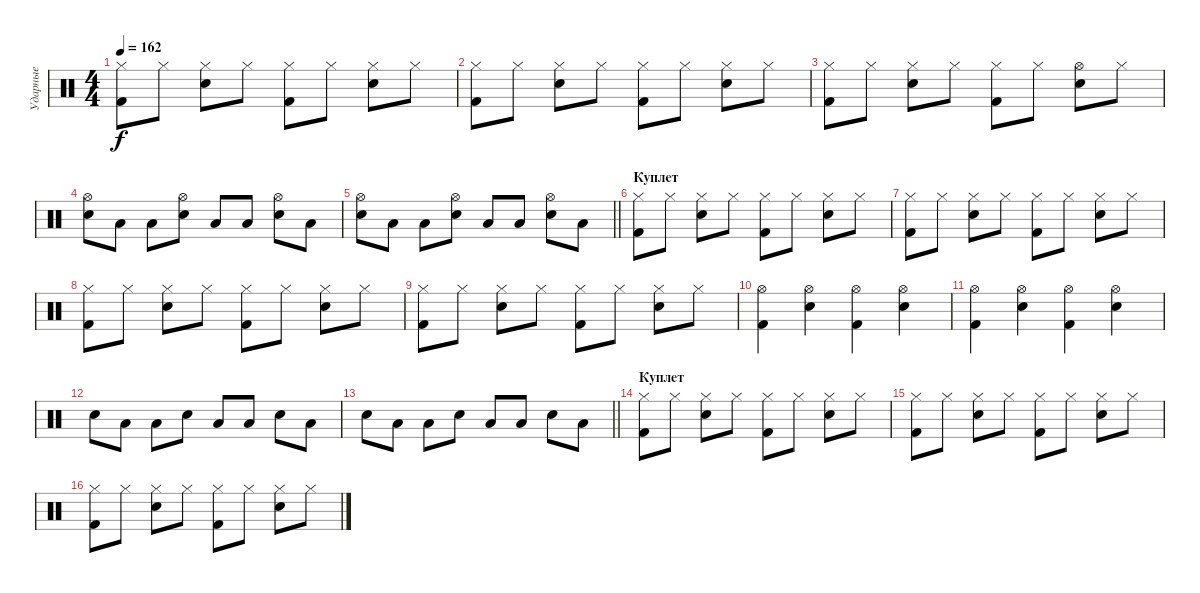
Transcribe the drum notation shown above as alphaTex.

\track ("Ударные" "Ударные") {instrument percussion}
\staff {score}
\articulation defaults
\ts (4 4)
\tempo 162
\clef neutral
\ks c
("Hi-Hat (closed)" "Kick (hit) 2").8{dy f} "Hi-Hat (closed)".8 ("Hi-Hat (closed)" "Snare (hit) 2").8 "Hi-Hat (closed)".8 ("Hi-Hat (closed)" "Kick (hit) 2").8 "Hi-Hat (closed)".8 ("Hi-Hat (closed)" "Snare (hit) 2").8 "Hi-Hat (closed)".8 |
("Hi-Hat (closed)" "Kick (hit) 2").8 "Hi-Hat (closed)".8 ("Hi-Hat (closed)" "Snare (hit) 2").8 "Hi-Hat (closed)".8 ("Hi-Hat (closed)" "Kick (hit) 2").8 "Hi-Hat (closed)".8 ("Hi-Hat (closed)" "Snare (hit) 2").8 "Hi-Hat (closed)".8 |
("Hi-Hat (closed)" "Kick (hit) 2").8 "Hi-Hat (closed)".8 ("Hi-Hat (closed)" "Snare (hit) 2").8 "Hi-Hat (closed)".8 ("Hi-Hat (closed)" "Kick (hit) 2").8 "Hi-Hat (closed)".8 ("Hi-Hat (open)" "Snare (hit) 2").8 "Hi-Hat (closed)".8 |
("Hi-Hat (open)" "Snare (hit) 2").8 "Low Floor Tom (hit)".8 "Low Floor Tom (hit)".8 ("Hi-Hat (open)" "Snare (hit) 2").8 "Low Floor Tom (hit)".8 "Low Floor Tom (hit)".8 ("Hi-Hat (open)" "Snare (hit) 2").8 "Low Floor Tom (hit)".8 |
\barLineRight lightlight
("Hi-Hat (open)" "Snare (hit) 2").8 "Low Floor Tom (hit)".8 "Low Floor Tom (hit)".8 ("Hi-Hat (open)" "Snare (hit) 2").8 "Low Floor Tom (hit)".8 "Low Floor Tom (hit)".8 ("Hi-Hat (open)" "Snare (hit) 2").8 "Low Floor Tom (hit)".8 |
\section ("" "Куплет")
("Hi-Hat (closed)" "Kick (hit) 2").8 "Hi-Hat (closed)".8 ("Hi-Hat (closed)" "Snare (hit) 2").8 "Hi-Hat (closed)".8 ("Hi-Hat (closed)" "Kick (hit) 2").8 "Hi-Hat (closed)".8 ("Hi-Hat (closed)" "Snare (hit) 2").8 "Hi-Hat (closed)".8 |
("Hi-Hat (closed)" "Kick (hit) 2").8 "Hi-Hat (closed)".8 ("Hi-Hat (closed)" "Snare (hit) 2").8 "Hi-Hat (closed)".8 ("Hi-Hat (closed)" "Kick (hit) 2").8 "Hi-Hat (closed)".8 ("Hi-Hat (closed)" "Snare (hit) 2").8 "Hi-Hat (closed)".8 |
("Hi-Hat (closed)" "Kick (hit) 2").8 "Hi-Hat (closed)".8 ("Hi-Hat (closed)" "Snare (hit) 2").8 "Hi-Hat (closed)".8 ("Hi-Hat (closed)" "Kick (hit) 2").8 "Hi-Hat (closed)".8 ("Hi-Hat (closed)" "Snare (hit) 2").8 "Hi-Hat (closed)".8 |
("Hi-Hat (closed)" "Kick (hit) 2").8 "Hi-Hat (closed)".8 ("Hi-Hat (closed)" "Snare (hit) 2").8 "Hi-Hat (closed)".8 ("Hi-Hat (closed)" "Kick (hit) 2").8 "Hi-Hat (closed)".8 ("Hi-Hat (closed)" "Snare (hit) 2").8 "Hi-Hat (closed)".8 |
("Hi-Hat (open)" "Kick (hit) 2").4 ("Hi-Hat (open)" "Snare (hit) 2").4 ("Hi-Hat (open)" "Kick (hit) 2").4 ("Hi-Hat (open)" "Snare (hit) 2").4 |
("Hi-Hat (open)" "Kick (hit) 2").4 ("Hi-Hat (open)" "Snare (hit) 2").4 ("Hi-Hat (open)" "Kick (hit) 2").4 ("Hi-Hat (open)" "Snare (hit) 2").4 |
"Snare (hit) 2".8 "Low Floor Tom (hit)".8 "Low Floor Tom (hit)".8 "Snare (hit) 2".8 "Low Floor Tom (hit)".8 "Low Floor Tom (hit)".8 "Snare (hit) 2".8 "Low Floor Tom (hit)".8 |
\barLineRight lightlight "Snare (hit) 2".8 "Low Floor Tom (hit)".8 "Low Floor Tom (hit)".8 "Snare (hit) 2".8 "Low Floor Tom (hit)".8 "Low Floor Tom (hit)".8 "Snare (hit) 2".8 "Low Floor Tom (hit)".8
|
\section ("" "Куплет")
("Hi-Hat (closed)" "Kick (hit) 2").8 "Hi-Hat (closed)".8 ("Hi-Hat (closed)" "Snare (hit) 2").8 "Hi-Hat (closed)".8 ("Hi-Hat (closed)" "Kick (hit) 2").8 "Hi-Hat (closed)".8 ("Hi-Hat (closed)" "Snare (hit) 2").8 "Hi-Hat (closed)".8 |
("Hi-Hat (closed)" "Kick (hit) 2").8 "Hi-Hat (closed)".8 ("Hi-Hat (closed)" "Snare (hit) 2").8 "Hi-Hat (closed)".8 ("Hi-Hat (closed)" "Kick (hit) 2").8 "Hi-Hat (closed)".8 ("Hi-Hat (closed)" "Snare (hit) 2").8 "Hi-Hat (closed)".8 |
("Hi-Hat (closed)" "Kick (hit) 2").8 "Hi-Hat (closed)".8 ("Hi-Hat (closed)" "Snare (hit) 2").8 "Hi-Hat (closed)".8 ("Hi-Hat (closed)" "Kick (hit) 2").8 "Hi-Hat (closed)".8 ("Hi-Hat (closed)" "Snare (hit) 2").8 "Hi-Hat (closed)".8
